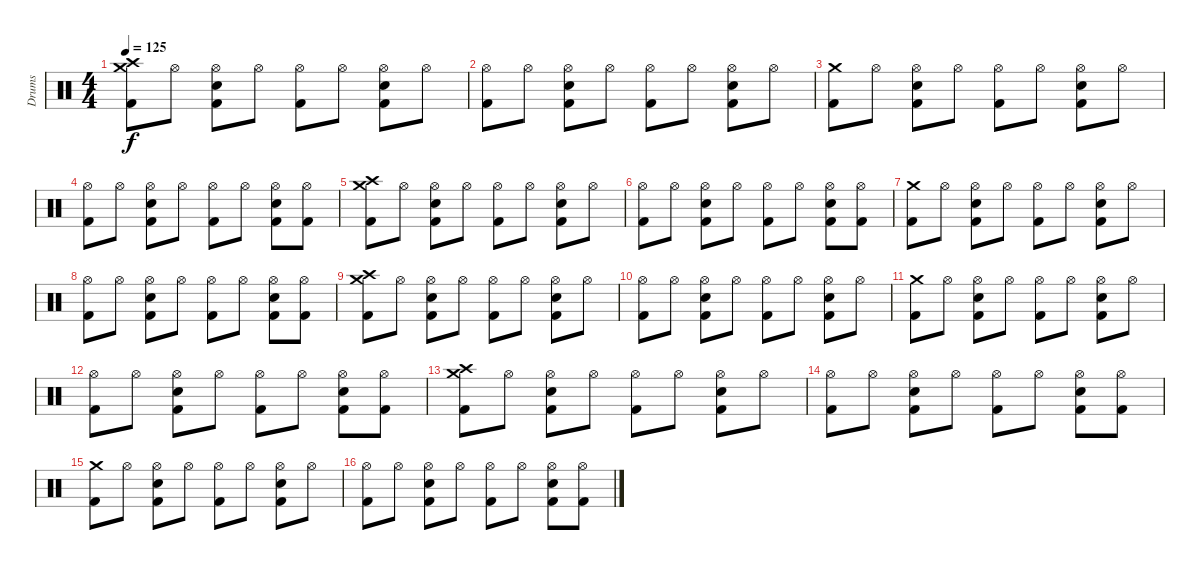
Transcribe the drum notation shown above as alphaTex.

\track ("Drums" "Drums") {instrument percussion}
\staff {score}
\articulation defaults
\ts (4 4)
\tempo 125
\clef neutral
\ks c
("Crash high (hit)" "Crash medium (hit)" "Kick (hit) 2").8{dy f} "Hi-Hat (open)".8 ("Hi-Hat (open)" "Electric Snare (hit)" "Kick (hit) 2").8 "Hi-Hat (open)".8 ("Hi-Hat (open)" "Kick (hit) 2").8 "Hi-Hat (open)".8 ("Hi-Hat (open)" "Electric Snare (hit)" "Kick (hit) 2").8 "Hi-Hat (open)".8 |
("Hi-Hat (open)" "Kick (hit) 2").8 "Hi-Hat (open)".8 ("Hi-Hat (open)" "Electric Snare (hit)" "Kick (hit) 2").8 "Hi-Hat (open)".8 ("Hi-Hat (open)" "Kick (hit) 2").8 "Hi-Hat (open)".8 ("Hi-Hat (open)" "Electric Snare (hit)" "Kick (hit) 2").8 "Hi-Hat (open)".8 |
("Crash medium (hit)" "Kick (hit) 2").8 "Hi-Hat (open)".8 ("Hi-Hat (open)" "Electric Snare (hit)" "Kick (hit) 2").8 "Hi-Hat (open)".8 ("Hi-Hat (open)" "Kick (hit) 2").8 "Hi-Hat (open)".8 ("Hi-Hat (open)" "Electric Snare (hit)" "Kick (hit) 2").8 "Hi-Hat (open)".8 |
("Hi-Hat (open)" "Kick (hit) 2").8 "Hi-Hat (open)".8 ("Hi-Hat (open)" "Electric Snare (hit)" "Kick (hit) 2").8 "Hi-Hat (open)".8 ("Hi-Hat (open)" "Kick (hit) 2").8 "Hi-Hat (open)".8 ("Hi-Hat (open)" "Electric Snare (hit)" "Kick (hit) 2").8 ("Hi-Hat (open)" "Kick (hit) 2").8 |
("Crash high (hit)" "Crash medium (hit)" "Kick (hit) 2").8 "Hi-Hat (open)".8 ("Hi-Hat (open)" "Electric Snare (hit)" "Kick (hit) 2").8 "Hi-Hat (open)".8 ("Hi-Hat (open)" "Kick (hit) 2").8 "Hi-Hat (open)".8 ("Hi-Hat (open)" "Electric Snare (hit)" "Kick (hit) 2").8 "Hi-Hat (open)".8 |
("Hi-Hat (open)" "Kick (hit) 2").8 "Hi-Hat (open)".8 ("Hi-Hat (open)" "Electric Snare (hit)" "Kick (hit) 2").8 "Hi-Hat (open)".8 ("Hi-Hat (open)" "Kick (hit) 2").8 "Hi-Hat (open)".8 ("Hi-Hat (open)" "Electric Snare (hit)" "Kick (hit) 2").8 ("Hi-Hat (open)" "Kick (hit) 2").8 |
("Crash medium (hit)" "Kick (hit) 2").8 "Hi-Hat (open)".8 ("Hi-Hat (open)" "Electric Snare (hit)" "Kick (hit) 2").8 "Hi-Hat (open)".8 ("Hi-Hat (open)" "Kick (hit) 2").8 "Hi-Hat (open)".8 ("Hi-Hat (open)" "Electric Snare (hit)" "Kick (hit) 2").8 "Hi-Hat (open)".8 |
("Hi-Hat (open)" "Kick (hit) 2").8 "Hi-Hat (open)".8 ("Hi-Hat (open)" "Electric Snare (hit)" "Kick (hit) 2").8 "Hi-Hat (open)".8 ("Hi-Hat (open)" "Kick (hit) 2").8 "Hi-Hat (open)".8 ("Hi-Hat (open)" "Electric Snare (hit)" "Kick (hit) 2").8 ("Hi-Hat (open)" "Kick (hit) 2").8 |
("Crash high (hit)" "Crash medium (hit)" "Kick (hit) 2").8 "Hi-Hat (open)".8 ("Hi-Hat (open)" "Electric Snare (hit)" "Kick (hit) 2").8 "Hi-Hat (open)".8 ("Hi-Hat (open)" "Kick (hit) 2").8 "Hi-Hat (open)".8 ("Hi-Hat (open)" "Electric Snare (hit)" "Kick (hit) 2").8 "Hi-Hat (open)".8 |
("Hi-Hat (open)" "Kick (hit) 2").8 "Hi-Hat (open)".8 ("Hi-Hat (open)" "Electric Snare (hit)" "Kick (hit) 2").8 "Hi-Hat (open)".8 ("Hi-Hat (open)" "Kick (hit) 2").8 "Hi-Hat (open)".8 ("Hi-Hat (open)" "Electric Snare (hit)" "Kick (hit) 2").8 "Hi-Hat (open)".8 |
("Crash medium (hit)" "Kick (hit) 2").8 "Hi-Hat (open)".8 ("Hi-Hat (open)" "Electric Snare (hit)" "Kick (hit) 2").8 "Hi-Hat (open)".8 ("Hi-Hat (open)" "Kick (hit) 2").8 "Hi-Hat (open)".8 ("Hi-Hat (open)" "Electric Snare (hit)" "Kick (hit) 2").8 "Hi-Hat (open)".8 |
("Hi-Hat (open)" "Kick (hit) 2").8 "Hi-Hat (open)".8 ("Hi-Hat (open)" "Electric Snare (hit)" "Kick (hit) 2").8 "Hi-Hat (open)".8 ("Hi-Hat (open)" "Kick (hit) 2").8 "Hi-Hat (open)".8 ("Hi-Hat (open)" "Electric Snare (hit)" "Kick (hit) 2").8 ("Hi-Hat (open)" "Kick (hit) 2").8 |
("Crash high (hit)" "Crash medium (hit)" "Kick (hit) 2").8 "Hi-Hat (open)".8 ("Hi-Hat (open)" "Electric Snare (hit)" "Kick (hit) 2").8 "Hi-Hat (open)".8 ("Hi-Hat (open)" "Kick (hit) 2").8 "Hi-Hat (open)".8 ("Hi-Hat (open)" "Electric Snare (hit)" "Kick (hit) 2").8 "Hi-Hat (open)".8 |
("Hi-Hat (open)" "Kick (hit) 2").8 "Hi-Hat (open)".8 ("Hi-Hat (open)" "Electric Snare (hit)" "Kick (hit) 2").8 "Hi-Hat (open)".8 ("Hi-Hat (open)" "Kick (hit) 2").8 "Hi-Hat (open)".8 ("Hi-Hat (open)" "Electric Snare (hit)" "Kick (hit) 2").8 ("Hi-Hat (open)" "Kick (hit) 2").8 |
("Crash medium (hit)" "Kick (hit) 2").8 "Hi-Hat (open)".8 ("Hi-Hat (open)" "Electric Snare (hit)" "Kick (hit) 2").8 "Hi-Hat (open)".8 ("Hi-Hat (open)" "Kick (hit) 2").8 "Hi-Hat (open)".8 ("Hi-Hat (open)" "Electric Snare (hit)" "Kick (hit) 2").8 "Hi-Hat (open)".8 |
("Hi-Hat (open)" "Kick (hit) 2").8 "Hi-Hat (open)".8 ("Hi-Hat (open)" "Electric Snare (hit)" "Kick (hit) 2").8 "Hi-Hat (open)".8 ("Hi-Hat (open)" "Kick (hit) 2").8 "Hi-Hat (open)".8 ("Hi-Hat (open)" "Electric Snare (hit)" "Kick (hit) 2").8 ("Hi-Hat (open)" "Kick (hit) 2").8
